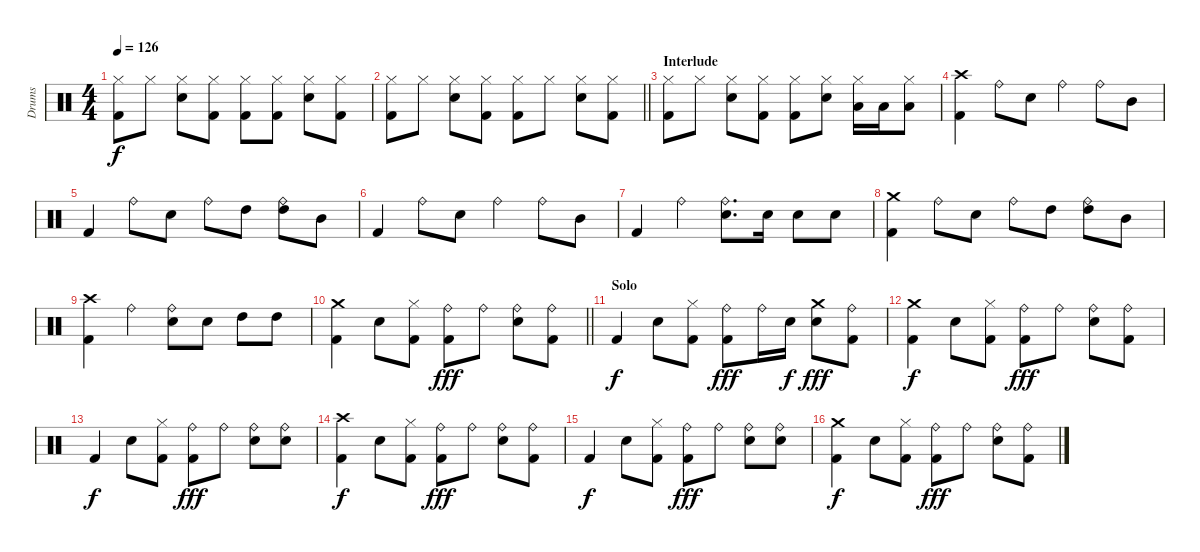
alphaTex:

\track ("Drums" "Drums") {instrument percussion}
\staff {score}
\articulation defaults
\ts (4 4)
\tempo 126
\clef neutral
\ks c
("Kick (hit) 2" "Hi-Hat (closed)").8{dy f} "Hi-Hat (closed)".8 ("Snare (hit) 2" "Hi-Hat (closed)").8 ("Kick (hit) 2" "Hi-Hat (closed)").8 ("Kick (hit) 2" "Hi-Hat (closed)").8 ("Kick (hit) 2" "Hi-Hat (closed)").8 ("Snare (hit) 2" "Hi-Hat (closed)").8 ("Kick (hit) 2" "Hi-Hat (closed)").8 |
\barLineRight lightlight
("Kick (hit) 2" "Hi-Hat (closed)").8 "Hi-Hat (closed)".8 ("Snare (hit) 2" "Hi-Hat (closed)").8 ("Kick (hit) 2" "Hi-Hat (closed)").8 ("Kick (hit) 2" "Hi-Hat (closed)").8 "Hi-Hat (closed)".8 ("Snare (hit) 2" "Hi-Hat (closed)").8 ("Kick (hit) 2" "Hi-Hat (closed)").8 |
\section ("" "Interlude")
("Kick (hit) 2" "Hi-Hat (closed)").8 "Hi-Hat (closed)".8 ("Snare (hit) 2" "Hi-Hat (closed)").8 ("Kick (hit) 2" "Hi-Hat (closed)").8 ("Kick (hit) 2" "Hi-Hat (closed)").8 ("Snare (hit) 2" "Hi-Hat (closed)").8 ("Hi-Hat (closed)" "Low Tom (hit)").16 "Low Tom (hit)".16 ("Hi-Hat (closed)" "Low Tom (hit)").8 |
("Kick (hit) 2" "Crash high (hit)").4 "Ride (bell)".8 "Snare (hit) 2".8 "Ride (bell)".4 "Ride (bell)".8 "Mid Tom (hit)".8 |
"Kick (hit) 2".4 "Ride (bell)".8 "Snare (hit) 2".8 "Ride (bell)".8 "High Tom (hit)".8 ("High Tom (hit)" "Ride (bell)").8 "Mid Tom (hit)".8 |
"Kick (hit) 2".4 "Ride (bell)".8 "Snare (hit) 2".8 "Ride (bell)".4 "Ride (bell)".8 "Mid Tom (hit)".8 |
"Kick (hit) 2".4 "Ride (bell)".4 ("Snare (hit) 2" "Ride (bell)").8{d} "Snare (hit) 2".16 "Snare (hit) 2".8 "Snare (hit) 2".8 |
("Kick (hit) 2" "Crash medium (hit)").4 "Ride (bell)".8 "Snare (hit) 2".8 "Ride (bell)".8 "High Tom (hit)".8 ("High Tom (hit)" "Ride (bell)").8 "Mid Tom (hit)".8 |
("Kick (hit) 2" "Crash high (hit)").4 "Ride (bell)".4 ("Snare (hit) 2" "Ride (bell)").8 "Snare (hit) 2".8 "High Tom (hit)".8 "High Tom (hit)".8 |
\barLineRight lightlight
("Kick (hit) 2" "Crash medium (hit)").4 "Snare (hit) 2".8 ("Kick (hit) 2" "Hi-Hat (closed)").8 ("Kick (hit) 2" "Ride (bell)").8{dy fff} "Ride (bell)".8 ("Snare (hit) 2" "Ride (bell)").8 ("Kick (hit) 2" "Ride (bell)").8 |
\section ("" "Solo")
"Kick (hit) 2".4{dy f} "Snare (hit) 2".8 ("Kick (hit) 2" "Hi-Hat (closed)").8 ("Kick (hit) 2" "Ride (bell)").8{dy fff} "Ride (bell)".16 "Snare (hit) 2".16{dy f} ("Snare (hit) 2" "Crash medium (hit)").8{dy fff} ("Kick (hit) 2" "Ride (bell)").8 |
("Kick (hit) 2" "Crash medium (hit)").4{dy f} "Snare (hit) 2".8 ("Kick (hit) 2" "Hi-Hat (closed)").8 ("Kick (hit) 2" "Ride (bell)").8{dy fff} "Ride (bell)".8 ("Snare (hit) 2" "Ride (bell)").8 ("Kick (hit) 2" "Ride (bell)").8 |
"Kick (hit) 2".4{dy f} "Snare (hit) 2".8 ("Kick (hit) 2" "Hi-Hat (closed)").8 ("Kick (hit) 2" "Ride (bell)").8{dy fff} "Ride (bell)".8 ("Snare (hit) 2" "Ride (bell)").8 ("Snare (hit) 2" "Ride (bell)").8 |
("Kick (hit) 2" "Crash high (hit)").4{dy f} "Snare (hit) 2".8 ("Kick (hit) 2" "Hi-Hat (closed)").8 ("Kick (hit) 2" "Ride (bell)").8{dy fff} "Ride (bell)".8 ("Snare (hit) 2" "Ride (bell)").8 ("Kick (hit) 2" "Ride (bell)").8 |
"Kick (hit) 2".4{dy f} "Snare (hit) 2".8 ("Kick (hit) 2" "Hi-Hat (closed)").8 ("Kick (hit) 2" "Ride (bell)").8{dy fff} "Ride (bell)".8 ("Snare (hit) 2" "Ride (bell)").8 ("Snare (hit) 2" "Ride (bell)").8 |
("Kick (hit) 2" "Crash medium (hit)").4{dy f} "Snare (hit) 2".8 ("Kick (hit) 2" "Hi-Hat (closed)").8 ("Kick (hit) 2" "Ride (bell)").8{dy fff} "Ride (bell)".8 ("Snare (hit) 2" "Ride (bell)").8 ("Kick (hit) 2" "Ride (bell)").8
